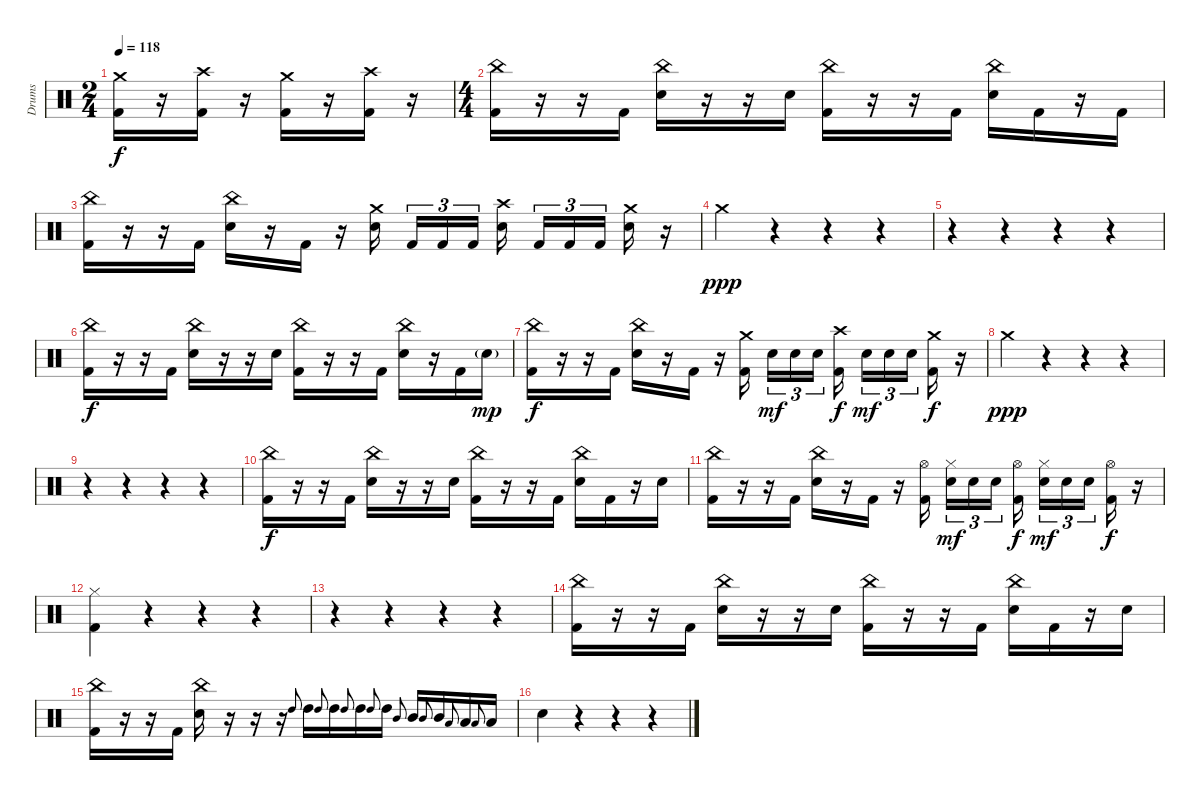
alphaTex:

\track ("Drums" "Drums") {instrument percussion}
\staff {score}
\articulation defaults
\ts (2 4)
\tempo 118
\clef neutral
\ks c
("Kick (hit) 2" "Crash medium (hit)").16{dy f} r.16 ("Kick (hit) 2" "Crash high (hit)").16 r.16 ("Kick (hit) 2" "Crash medium (hit)").16 r.16 ("Kick (hit) 2" "Crash high (hit)").16 r.16 |
\ts (4 4)
("Kick (hit) 2" "China (hit)").16 r.16 r.16 "Kick (hit) 2".16 ("Snare (hit) 2" "China (hit)").16 r.16 r.16 "Snare (hit) 2".16 ("Kick (hit) 2" "China (hit)").16 r.16 r.16 "Kick (hit) 2".16 ("Snare (hit) 2" "China (hit)").16 "Kick (hit) 2".16 r.16 "Kick (hit) 2".16 |
("Kick (hit) 2" "China (hit)").16 r.16 r.16 "Kick (hit) 2".16 ("Snare (hit) 2" "China (hit)").16 r.16 "Kick (hit) 2".16 r.16 ("Snare (hit) 2" "Crash medium (hit)").16{beam splitsecondary} "Kick (hit) 2".16{tu (3 2)} "Kick (hit) 2".16{tu (3 2)} "Kick (hit) 2".16{tu (3 2) beam splitsecondary} ("Snare (hit) 2" "Crash high (hit)").16 "Kick (hit) 2".16{tu (3 2)} "Kick (hit) 2".16{tu (3 2)} "Kick (hit) 2".16{tu (3 2) beam splitsecondary} ("Snare (hit) 2" "Crash medium (hit)").16 r.16 |
"Crash medium (hit)".4{dy ppp} r.4 r.4 r.4 |
r.4 r.4 r.4 r.4 |
("Kick (hit) 2" "China (hit)").16{dy f} r.16 r.16 "Kick (hit) 2".16 ("Snare (hit) 2" "China (hit)").16 r.16 r.16 "Snare (hit) 2".16 ("Kick (hit) 2" "China (hit)").16 r.16 r.16 "Kick (hit) 2".16 ("Snare (hit) 2" "China (hit)").16 r.16 "Kick (hit) 2".16 "Snare (hit) 2"{g}.16{dy mp} |
("Kick (hit) 2" "China (hit)").16{dy f} r.16 r.16 "Kick (hit) 2".16 ("Snare (hit) 2" "China (hit)").16 r.16 "Kick (hit) 2".16 r.16 ("Crash medium (hit)" "Kick (hit) 2").16{beam splitsecondary} "Snare (hit) 2".16{tu (3 2) dy mf} "Snare (hit) 2".16{tu (3 2)} "Snare (hit) 2".16{tu (3 2) beam splitsecondary} ("Crash high (hit)" "Kick (hit) 2").16{dy f} "Snare (hit) 2".16{tu (3 2) dy mf} "Snare (hit) 2".16{tu (3 2)} "Snare (hit) 2".16{tu (3 2) beam splitsecondary} ("Crash medium (hit)" "Kick (hit) 2").16{dy f} r.16 |
"Crash medium (hit)".4{dy ppp} r.4 r.4 r.4 |
r.4 r.4 r.4 r.4 |
("Kick (hit) 2" "China (hit)").16{dy f} r.16 r.16 "Kick (hit) 2".16 ("Snare (hit) 2" "China (hit)").16 r.16 r.16 "Snare (hit) 2".16 ("Kick (hit) 2" "China (hit)").16 r.16 r.16 "Kick (hit) 2".16 ("Snare (hit) 2" "China (hit)").16 "Kick (hit) 2".16 r.16 "Snare (hit) 2".16 |
("Kick (hit) 2" "China (hit)").16 r.16 r.16 "Kick (hit) 2".16 ("Snare (hit) 2" "China (hit)").16 r.16 "Kick (hit) 2".16 r.16 ("Hi-Hat (open)" "Kick (hit) 2").16{beam splitsecondary} ("Hi-Hat (closed)" "Snare (hit) 2").16{tu (3 2) dy mf} "Snare (hit) 2".16{tu (3 2)} "Snare (hit) 2".16{tu (3 2) beam splitsecondary} ("Hi-Hat (open)" "Kick (hit) 2").16{dy f} ("Hi-Hat (closed)" "Snare (hit) 2").16{tu (3 2) dy mf} "Snare (hit) 2".16{tu (3 2)} "Snare (hit) 2".16{tu (3 2) beam splitsecondary} ("Hi-Hat (open)" "Kick (hit) 2").16{dy f} r.16 |
("Kick (hit) 2" "Hi-Hat (closed)").4 r.4 r.4 r.4 |
r.4 r.4 r.4 r.4 |
("Kick (hit) 2" "China (hit)").16 r.16 r.16 "Kick (hit) 2".16 ("Snare (hit) 2" "China (hit)").16 r.16 r.16 "Snare (hit) 2".16 ("Kick (hit) 2" "China (hit)").16 r.16 r.16 "Kick (hit) 2".16 ("Snare (hit) 2" "China (hit)").16 "Kick (hit) 2".16 r.16 "Snare (hit) 2".16 |
("Kick (hit) 2" "China (hit)").16 r.16 r.16 "Kick (hit) 2".16 ("Snare (hit) 2" "China (hit)").16 r.16 r.16 r.16 "High Tom (hit)".8{gr onbeat} "High Tom (hit)".16 "High Tom (hit)".8{gr onbeat} "High Tom (hit)".16 "High Tom (hit)".8{gr onbeat} "High Tom (hit)".16 "High Tom (hit)".8{gr onbeat} "High Tom (hit)".16 "Mid Tom (hit)".8{gr onbeat} "Mid Tom (hit)".16 "Mid Tom (hit)".8{gr onbeat} "Mid Tom (hit)".16 "Low Tom (hit)".8{gr onbeat} "Low Tom (hit)".16 "Low Tom (hit)".8{gr onbeat} "Low Tom (hit)".16 |
"Snare (hit) 2".4 r.4 r.4 r.4
